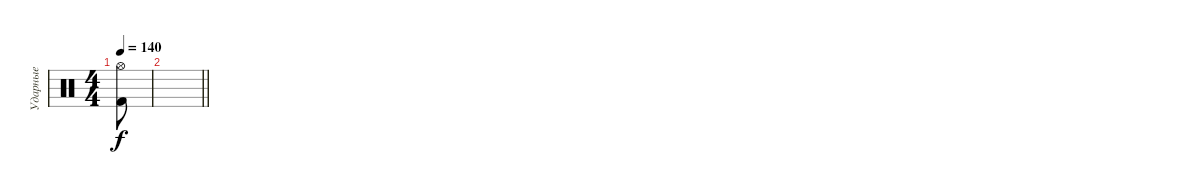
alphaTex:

\track ("Ударные" "Ударные") {instrument percussion}
\staff {score}
\articulation defaults
\ts (4 4)
\tempo 140
\clef neutral
\ks c
("Kick (hit) 2" "Hi-Hat (open)").8{dy f} |
\barLineRight lightlight
